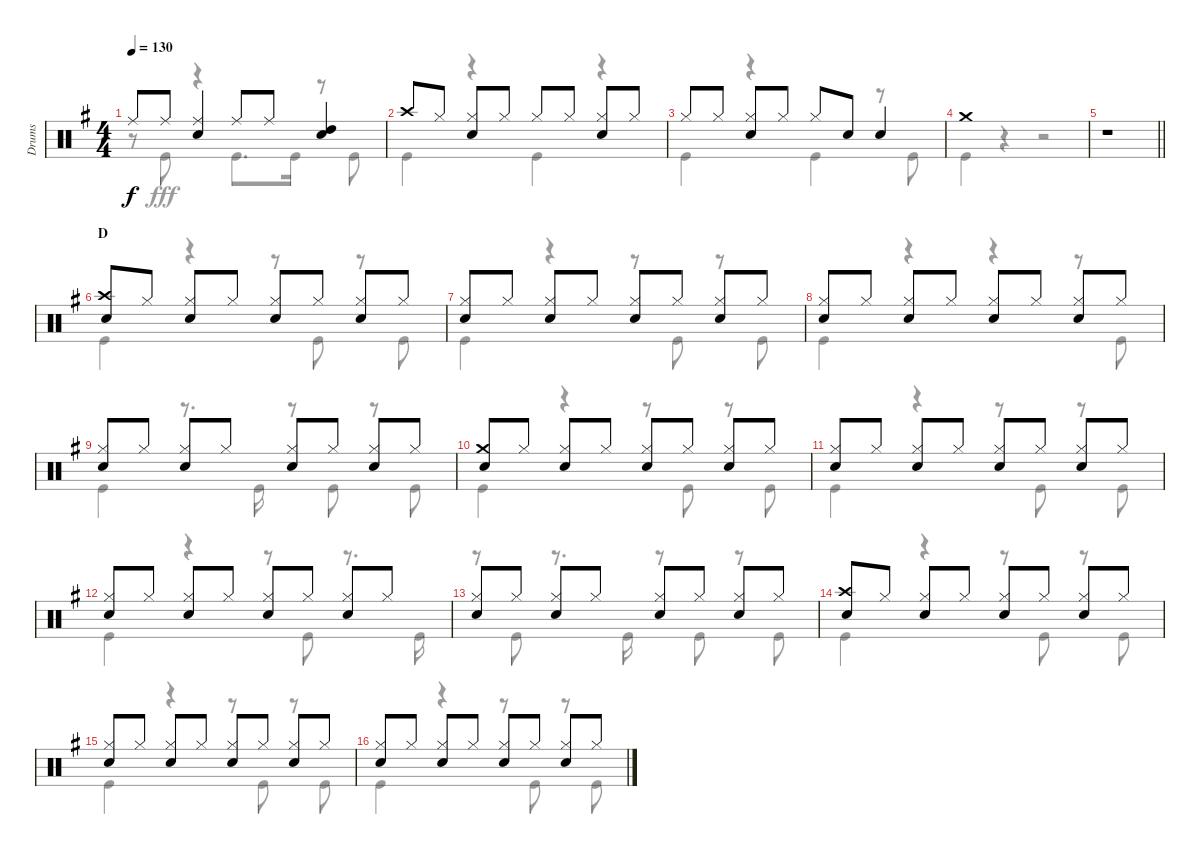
\track ("Drums" "Drums") {instrument percussion}
\staff {score}
\articulation defaults
\voice
\ts (4 4)
\tempo 130
\clef neutral
\ks g "Ride (middle)".8{dy f} "Ride (middle)".8
("Ride (middle)" "Snare (hit) 2").4 "Ride (middle)".8 "Ride (middle)".8 ("High Tom (hit)" "Snare (hit) 2").4 |
"Crash high (hit)".8 "Hi-Hat (closed)".8 ("Hi-Hat (closed)" "Snare (hit) 2").8 "Hi-Hat (closed)".8 "Hi-Hat (closed)".8 "Hi-Hat (closed)".8 ("Hi-Hat (closed)" "Snare (hit) 2").8 "Hi-Hat (closed)".8 |
"Hi-Hat (closed)".8 "Hi-Hat (closed)".8 ("Hi-Hat (closed)" "Snare (hit) 2").8 "Hi-Hat (closed)".8 "Hi-Hat (closed)".8 "Snare (hit) 2".8 "Snare (hit) 2".4 |
"Crash medium (hit)".1 |
\barLineRight lightlight
r.1 |
\section ("" "D")
("Crash high (hit)" "Snare (hit) 2").8 "Hi-Hat (closed)".8 ("Hi-Hat (closed)" "Snare (hit) 2").8 "Hi-Hat (closed)".8 ("Hi-Hat (closed)" "Snare (hit) 2").8 "Hi-Hat (closed)".8 ("Hi-Hat (closed)" "Snare (hit) 2").8 "Hi-Hat (closed)".8 |
("Hi-Hat (closed)" "Snare (hit) 2").8 "Hi-Hat (closed)".8 ("Hi-Hat (closed)" "Snare (hit) 2").8 "Hi-Hat (closed)".8 ("Hi-Hat (closed)" "Snare (hit) 2").8 "Hi-Hat (closed)".8 ("Hi-Hat (closed)" "Snare (hit) 2").8 "Hi-Hat (closed)".8 |
("Hi-Hat (closed)" "Snare (hit) 2").8 "Hi-Hat (closed)".8 ("Hi-Hat (closed)" "Snare (hit) 2").8 "Hi-Hat (closed)".8 ("Hi-Hat (closed)" "Snare (hit) 2").8 "Hi-Hat (closed)".8 ("Hi-Hat (closed)" "Snare (hit) 2").8 "Hi-Hat (closed)".8 |
("Hi-Hat (closed)" "Snare (hit) 2").8 "Hi-Hat (closed)".8 ("Hi-Hat (closed)" "Snare (hit) 2").8 "Hi-Hat (closed)".8 ("Hi-Hat (closed)" "Snare (hit) 2").8 "Hi-Hat (closed)".8 ("Hi-Hat (closed)" "Snare (hit) 2").8 "Hi-Hat (closed)".8 |
("Crash medium (hit)" "Snare (hit) 2").8 "Hi-Hat (closed)".8 ("Hi-Hat (closed)" "Snare (hit) 2").8 "Hi-Hat (closed)".8 ("Hi-Hat (closed)" "Snare (hit) 2").8 "Hi-Hat (closed)".8 ("Hi-Hat (closed)" "Snare (hit) 2").8 "Hi-Hat (closed)".8 |
("Hi-Hat (closed)" "Snare (hit) 2").8 "Hi-Hat (closed)".8 ("Hi-Hat (closed)" "Snare (hit) 2").8 "Hi-Hat (closed)".8 ("Hi-Hat (closed)" "Snare (hit) 2").8 "Hi-Hat (closed)".8 ("Hi-Hat (closed)" "Snare (hit) 2").8 "Hi-Hat (closed)".8 |
("Hi-Hat (closed)" "Snare (hit) 2").8 "Hi-Hat (closed)".8 ("Hi-Hat (closed)" "Snare (hit) 2").8 "Hi-Hat (closed)".8 ("Hi-Hat (closed)" "Snare (hit) 2").8 "Hi-Hat (closed)".8 ("Hi-Hat (closed)" "Snare (hit) 2").8 "Hi-Hat (closed)".8 |
("Hi-Hat (closed)" "Snare (hit) 2").8 "Hi-Hat (closed)".8 ("Hi-Hat (closed)" "Snare (hit) 2").8 "Hi-Hat (closed)".8 ("Hi-Hat (closed)" "Snare (hit) 2").8 "Hi-Hat (closed)".8 ("Hi-Hat (closed)" "Snare (hit) 2").8 "Hi-Hat (closed)".8 |
("Crash high (hit)" "Snare (hit) 2").8 "Hi-Hat (closed)".8 ("Hi-Hat (closed)" "Snare (hit) 2").8 "Hi-Hat (closed)".8 ("Hi-Hat (closed)" "Snare (hit) 2").8 "Hi-Hat (closed)".8 ("Hi-Hat (closed)" "Snare (hit) 2").8 "Hi-Hat (closed)".8 |
("Hi-Hat (closed)" "Snare (hit) 2").8 "Hi-Hat (closed)".8 ("Hi-Hat (closed)" "Snare (hit) 2").8 "Hi-Hat (closed)".8 ("Hi-Hat (closed)" "Snare (hit) 2").8 "Hi-Hat (closed)".8 ("Hi-Hat (closed)" "Snare (hit) 2").8 "Hi-Hat (closed)".8 |
("Hi-Hat (closed)" "Snare (hit) 2").8 "Hi-Hat (closed)".8 ("Hi-Hat (closed)" "Snare (hit) 2").8 "Hi-Hat (closed)".8 ("Hi-Hat (closed)" "Snare (hit) 2").8 "Hi-Hat (closed)".8 ("Hi-Hat (closed)" "Snare (hit) 2").8 "Hi-Hat (closed)".8
\voice
\clef neutral
\ottava regular
\simile none
\ks g
r.8{dy fff} "Kick (hit)".8 r.4 "Kick (hit)".8{d} "Kick (hit)".16 r.8 "Kick (hit)".8 |
"Kick (hit)".4 r.4 "Kick (hit)".4 r.4 |
"Kick (hit)".4 r.4 "Kick (hit)".4 r.8 "Kick (hit)".8 |
"Kick (hit)".4 r.4 r.2 |
\barLineRight lightlight
r.1 |
"Kick (hit)".4 r.4 r.8 "Kick (hit)".8 r.8 "Kick (hit)".8 |
"Kick (hit)".4 r.4 r.8 "Kick (hit)".8 r.8 "Kick (hit)".8 |
"Kick (hit)".4 r.4 r.4 r.8 "Kick (hit)".8 |
"Kick (hit)".4 r.8{d} "Kick (hit)".16 r.8 "Kick (hit)".8 r.8 "Kick (hit)".8 |
"Kick (hit)".4 r.4 r.8 "Kick (hit)".8 r.8 "Kick (hit)".8 |
"Kick (hit)".4 r.4 r.8 "Kick (hit)".8 r.8 "Kick (hit)".8 |
"Kick (hit)".4 r.4 r.8 "Kick (hit)".8 r.8{d} "Kick (hit)".16 |
r.8 "Kick (hit)".8 r.8{d} "Kick (hit)".16 r.8 "Kick (hit)".8 r.8 "Kick (hit)".8 |
"Kick (hit)".4 r.4 r.8 "Kick (hit)".8 r.8 "Kick (hit)".8 |
"Kick (hit)".4 r.4 r.8 "Kick (hit)".8 r.8 "Kick (hit)".8 |
"Kick (hit)".4 r.4 r.8 "Kick (hit)".8 r.8 "Kick (hit)".8
